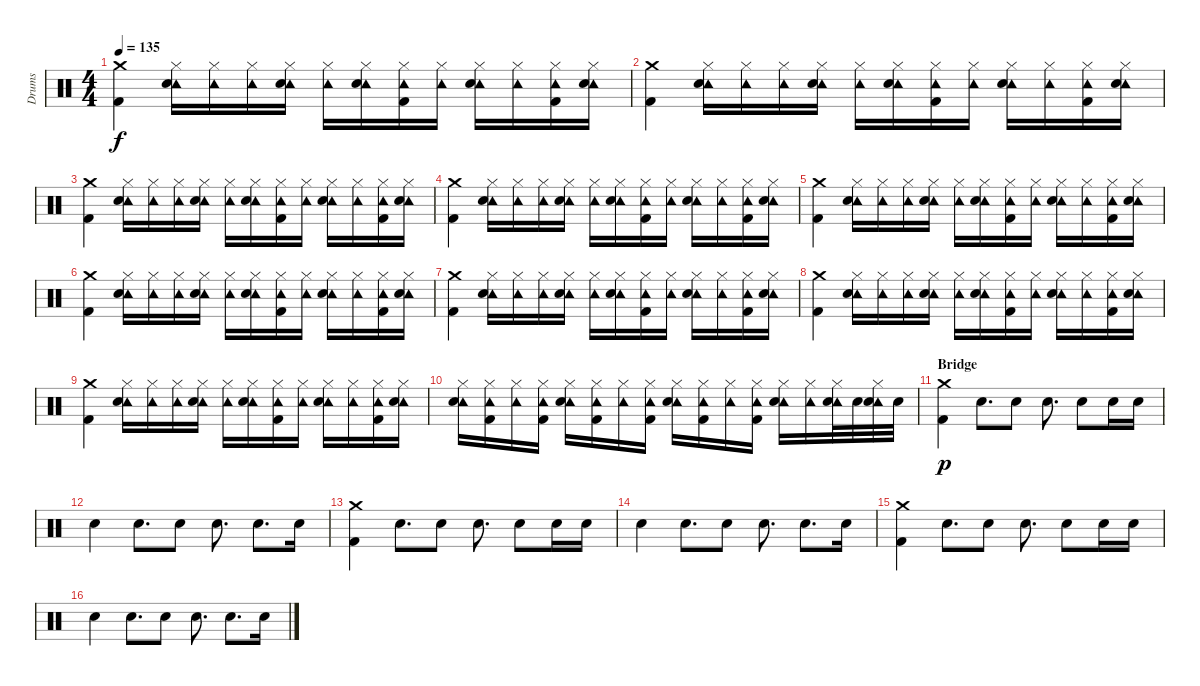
\track ("Drums" "Drums") {instrument percussion}
\staff {score}
\articulation defaults
\ts (4 4)
\tempo 135
\clef neutral
\ks c
("Crash medium (hit)" "Kick (hit) 2").4{dy f} ("Hi-Hat (closed)" "Tambourine (hit)" "Snare (hit) 2").16 ("Hi-Hat (closed)" "Tambourine (hit)").16 ("Hi-Hat (closed)" "Tambourine (hit)").16 ("Hi-Hat (closed)" "Tambourine (hit)" "Snare (hit) 2").16 ("Hi-Hat (closed)" "Tambourine (hit)").16 ("Hi-Hat (closed)" "Tambourine (hit)" "Snare (hit) 2").16 ("Hi-Hat (closed)" "Tambourine (hit)" "Kick (hit) 2").16 ("Hi-Hat (closed)" "Tambourine (hit)").16 ("Hi-Hat (closed)" "Tambourine (hit)" "Snare (hit) 2").16 ("Hi-Hat (closed)" "Tambourine (hit)").16 ("Hi-Hat (closed)" "Tambourine (hit)" "Kick (hit) 2").16 ("Hi-Hat (closed)" "Tambourine (hit)" "Snare (hit) 2").16 |
("Crash medium (hit)" "Kick (hit) 2").4 ("Hi-Hat (closed)" "Tambourine (hit)" "Snare (hit) 2").16 ("Hi-Hat (closed)" "Tambourine (hit)").16 ("Hi-Hat (closed)" "Tambourine (hit)").16 ("Hi-Hat (closed)" "Tambourine (hit)" "Snare (hit) 2").16 ("Hi-Hat (closed)" "Tambourine (hit)").16 ("Hi-Hat (closed)" "Tambourine (hit)" "Snare (hit) 2").16 ("Hi-Hat (closed)" "Tambourine (hit)" "Kick (hit) 2").16 ("Hi-Hat (closed)" "Tambourine (hit)").16 ("Hi-Hat (closed)" "Tambourine (hit)" "Snare (hit) 2").16 ("Hi-Hat (closed)" "Tambourine (hit)").16 ("Hi-Hat (closed)" "Tambourine (hit)" "Kick (hit) 2").16 ("Hi-Hat (closed)" "Tambourine (hit)" "Snare (hit) 2").16 |
("Crash medium (hit)" "Kick (hit) 2").4 ("Hi-Hat (closed)" "Tambourine (hit)" "Snare (hit) 2").16 ("Hi-Hat (closed)" "Tambourine (hit)").16 ("Hi-Hat (closed)" "Tambourine (hit)").16 ("Hi-Hat (closed)" "Tambourine (hit)" "Snare (hit) 2").16 ("Hi-Hat (closed)" "Tambourine (hit)").16 ("Hi-Hat (closed)" "Tambourine (hit)" "Snare (hit) 2").16 ("Hi-Hat (closed)" "Tambourine (hit)" "Kick (hit) 2").16 ("Hi-Hat (closed)" "Tambourine (hit)").16 ("Hi-Hat (closed)" "Tambourine (hit)" "Snare (hit) 2").16 ("Hi-Hat (closed)" "Tambourine (hit)").16 ("Hi-Hat (closed)" "Tambourine (hit)" "Kick (hit) 2").16 ("Hi-Hat (closed)" "Tambourine (hit)" "Snare (hit) 2").16 |
("Crash medium (hit)" "Kick (hit) 2").4 ("Hi-Hat (closed)" "Tambourine (hit)" "Snare (hit) 2").16 ("Hi-Hat (closed)" "Tambourine (hit)").16 ("Hi-Hat (closed)" "Tambourine (hit)").16 ("Hi-Hat (closed)" "Tambourine (hit)" "Snare (hit) 2").16 ("Hi-Hat (closed)" "Tambourine (hit)").16 ("Hi-Hat (closed)" "Tambourine (hit)" "Snare (hit) 2").16 ("Hi-Hat (closed)" "Tambourine (hit)" "Kick (hit) 2").16 ("Hi-Hat (closed)" "Tambourine (hit)").16 ("Hi-Hat (closed)" "Tambourine (hit)" "Snare (hit) 2").16 ("Hi-Hat (closed)" "Tambourine (hit)").16 ("Hi-Hat (closed)" "Tambourine (hit)" "Kick (hit) 2").16 ("Hi-Hat (closed)" "Tambourine (hit)" "Snare (hit) 2").16 |
("Crash medium (hit)" "Kick (hit) 2").4 ("Hi-Hat (closed)" "Tambourine (hit)" "Snare (hit) 2").16 ("Hi-Hat (closed)" "Tambourine (hit)").16 ("Hi-Hat (closed)" "Tambourine (hit)").16 ("Hi-Hat (closed)" "Tambourine (hit)" "Snare (hit) 2").16 ("Hi-Hat (closed)" "Tambourine (hit)").16 ("Hi-Hat (closed)" "Tambourine (hit)" "Snare (hit) 2").16 ("Hi-Hat (closed)" "Tambourine (hit)" "Kick (hit) 2").16 ("Hi-Hat (closed)" "Tambourine (hit)").16 ("Hi-Hat (closed)" "Tambourine (hit)" "Snare (hit) 2").16 ("Hi-Hat (closed)" "Tambourine (hit)").16 ("Hi-Hat (closed)" "Tambourine (hit)" "Kick (hit) 2").16 ("Hi-Hat (closed)" "Tambourine (hit)" "Snare (hit) 2").16 |
("Crash medium (hit)" "Kick (hit) 2").4 ("Hi-Hat (closed)" "Tambourine (hit)" "Snare (hit) 2").16 ("Hi-Hat (closed)" "Tambourine (hit)").16 ("Hi-Hat (closed)" "Tambourine (hit)").16 ("Hi-Hat (closed)" "Tambourine (hit)" "Snare (hit) 2").16 ("Hi-Hat (closed)" "Tambourine (hit)").16 ("Hi-Hat (closed)" "Tambourine (hit)" "Snare (hit) 2").16 ("Hi-Hat (closed)" "Tambourine (hit)" "Kick (hit) 2").16 ("Hi-Hat (closed)" "Tambourine (hit)").16 ("Hi-Hat (closed)" "Tambourine (hit)" "Snare (hit) 2").16 ("Hi-Hat (closed)" "Tambourine (hit)").16 ("Hi-Hat (closed)" "Tambourine (hit)" "Kick (hit) 2").16 ("Hi-Hat (closed)" "Tambourine (hit)" "Snare (hit) 2").16 |
("Crash medium (hit)" "Kick (hit) 2").4 ("Hi-Hat (closed)" "Tambourine (hit)" "Snare (hit) 2").16 ("Hi-Hat (closed)" "Tambourine (hit)").16 ("Hi-Hat (closed)" "Tambourine (hit)").16 ("Hi-Hat (closed)" "Tambourine (hit)" "Snare (hit) 2").16 ("Hi-Hat (closed)" "Tambourine (hit)").16 ("Hi-Hat (closed)" "Tambourine (hit)" "Snare (hit) 2").16 ("Hi-Hat (closed)" "Tambourine (hit)" "Kick (hit) 2").16 ("Hi-Hat (closed)" "Tambourine (hit)").16 ("Hi-Hat (closed)" "Tambourine (hit)" "Snare (hit) 2").16 ("Hi-Hat (closed)" "Tambourine (hit)").16 ("Hi-Hat (closed)" "Tambourine (hit)" "Kick (hit) 2").16 ("Hi-Hat (closed)" "Tambourine (hit)" "Snare (hit) 2").16 |
("Crash medium (hit)" "Kick (hit) 2").4 ("Hi-Hat (closed)" "Tambourine (hit)" "Snare (hit) 2").16 ("Hi-Hat (closed)" "Tambourine (hit)").16 ("Hi-Hat (closed)" "Tambourine (hit)").16 ("Hi-Hat (closed)" "Tambourine (hit)" "Snare (hit) 2").16 ("Hi-Hat (closed)" "Tambourine (hit)").16 ("Hi-Hat (closed)" "Tambourine (hit)" "Snare (hit) 2").16 ("Hi-Hat (closed)" "Tambourine (hit)" "Kick (hit) 2").16 ("Hi-Hat (closed)" "Tambourine (hit)").16 ("Hi-Hat (closed)" "Tambourine (hit)" "Snare (hit) 2").16 ("Hi-Hat (closed)" "Tambourine (hit)").16 ("Hi-Hat (closed)" "Tambourine (hit)" "Kick (hit) 2").16 ("Hi-Hat (closed)" "Tambourine (hit)" "Snare (hit) 2").16 |
("Crash medium (hit)" "Kick (hit) 2").4 ("Hi-Hat (closed)" "Tambourine (hit)" "Snare (hit) 2").16 ("Hi-Hat (closed)" "Tambourine (hit)").16 ("Hi-Hat (closed)" "Tambourine (hit)").16 ("Hi-Hat (closed)" "Tambourine (hit)" "Snare (hit) 2").16 ("Hi-Hat (closed)" "Tambourine (hit)").16 ("Hi-Hat (closed)" "Tambourine (hit)" "Snare (hit) 2").16 ("Hi-Hat (closed)" "Tambourine (hit)" "Kick (hit) 2").16 ("Hi-Hat (closed)" "Tambourine (hit)").16 ("Hi-Hat (closed)" "Tambourine (hit)" "Snare (hit) 2").16 ("Hi-Hat (closed)" "Tambourine (hit)").16 ("Hi-Hat (closed)" "Tambourine (hit)" "Kick (hit) 2").16 ("Hi-Hat (closed)" "Tambourine (hit)" "Snare (hit) 2").16 |
("Hi-Hat (closed)" "Tambourine (hit)" "Snare (hit) 2").16 ("Hi-Hat (closed)" "Tambourine (hit)" "Kick (hit) 2").16 ("Hi-Hat (closed)" "Tambourine (hit)").16 ("Hi-Hat (closed)" "Tambourine (hit)" "Kick (hit) 2").16 ("Hi-Hat (closed)" "Tambourine (hit)" "Snare (hit) 2").16 ("Hi-Hat (closed)" "Tambourine (hit)" "Kick (hit) 2").16 ("Hi-Hat (closed)" "Tambourine (hit)").16 ("Hi-Hat (closed)" "Tambourine (hit)" "Kick (hit) 2").16 ("Hi-Hat (closed)" "Tambourine (hit)" "Snare (hit) 2").16 ("Hi-Hat (closed)" "Tambourine (hit)" "Kick (hit) 2").16 ("Hi-Hat (closed)" "Tambourine (hit)").16 ("Hi-Hat (closed)" "Tambourine (hit)" "Kick (hit) 2").16 ("Hi-Hat (closed)" "Tambourine (hit)" "Snare (hit) 2").16 ("Hi-Hat (closed)" "Tambourine (hit)").16 ("Hi-Hat (closed)" "Tambourine (hit)" "Snare (hit) 2").32 "Snare (hit) 2".32 ("Hi-Hat (closed)" "Tambourine (hit)" "Snare (hit) 2").32 "Snare (hit) 2".32 |
\section ("" "Bridge")
("Crash medium (hit)" "Kick (hit) 2").4{dy p} "Snare (hit) 2".8{d} "Snare (hit) 2".8 "Snare (hit) 2".8{d} "Snare (hit) 2".8 "Snare (hit) 2".16 "Snare (hit) 2".16 |
"Snare (hit) 2".4 "Snare (hit) 2".8{d} "Snare (hit) 2".8 "Snare (hit) 2".8{d} "Snare (hit) 2".8{d} "Snare (hit) 2".16 |
("Crash medium (hit)" "Kick (hit) 2").4 "Snare (hit) 2".8{d} "Snare (hit) 2".8 "Snare (hit) 2".8{d} "Snare (hit) 2".8 "Snare (hit) 2".16 "Snare (hit) 2".16 |
"Snare (hit) 2".4 "Snare (hit) 2".8{d} "Snare (hit) 2".8 "Snare (hit) 2".8{d} "Snare (hit) 2".8{d} "Snare (hit) 2".16 |
("Crash medium (hit)" "Kick (hit) 2").4 "Snare (hit) 2".8{d} "Snare (hit) 2".8 "Snare (hit) 2".8{d} "Snare (hit) 2".8 "Snare (hit) 2".16 "Snare (hit) 2".16 |
"Snare (hit) 2".4 "Snare (hit) 2".8{d} "Snare (hit) 2".8 "Snare (hit) 2".8{d} "Snare (hit) 2".8{d} "Snare (hit) 2".16
